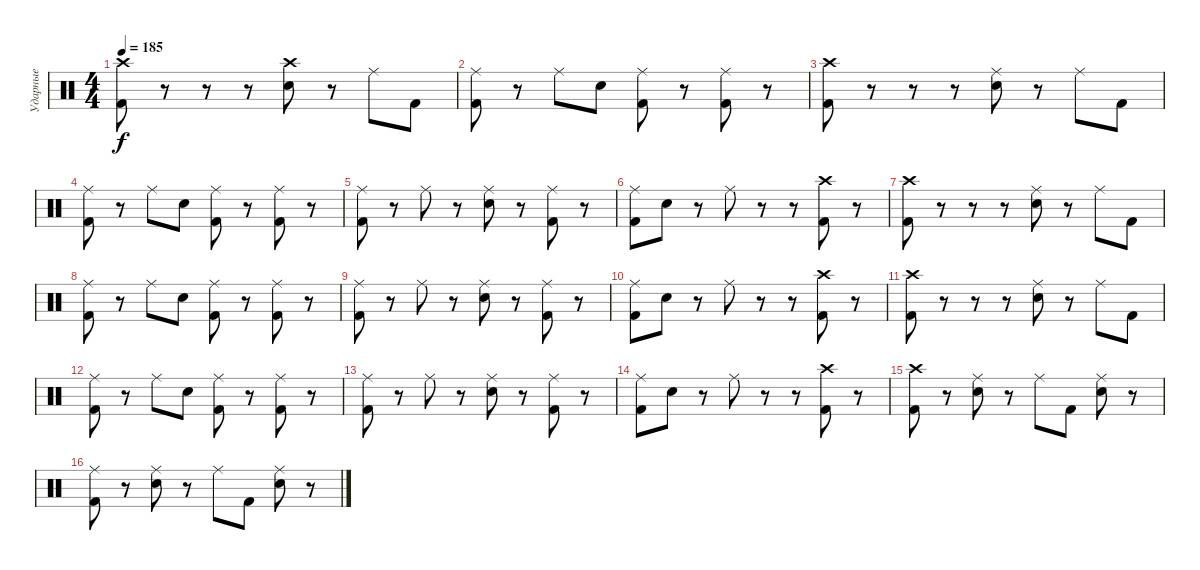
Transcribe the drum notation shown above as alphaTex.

\track ("Ударные" "Ударные") {instrument percussion}
\staff {score}
\articulation defaults
\ts (4 4)
\tempo 185
\clef neutral
\ks c
("Kick (hit) 2" "Crash high (hit)").8{dy f} r.8 r.8 r.8 ("Electric Snare (hit)" "Crash high (hit)").8 r.8 "Ride (middle)".8 "Kick (hit) 2".8 |
("Kick (hit) 2" "Ride (middle)").8 r.8 "Ride (middle)".8 "Electric Snare (hit)".8 ("Kick (hit) 2" "Ride (middle)").8 r.8 ("Kick (hit) 2" "Ride (middle)").8 r.8 |
("Kick (hit) 2" "Crash high (hit)").8 r.8 r.8 r.8 ("Electric Snare (hit)" "Ride (middle)").8 r.8 "Ride (middle)".8 "Kick (hit) 2".8 |
("Kick (hit) 2" "Ride (middle)").8 r.8 "Ride (middle)".8 "Electric Snare (hit)".8 ("Kick (hit) 2" "Ride (middle)").8 r.8 ("Kick (hit) 2" "Ride (middle)").8 r.8 |
("Kick (hit) 2" "Ride (middle)").8 r.8 "Ride (middle)".8 r.8 ("Electric Snare (hit)" "Ride (middle)").8 r.8 ("Kick (hit) 2" "Ride (middle)").8 r.8 |
("Kick (hit) 2" "Ride (middle)").8 "Electric Snare (hit)".8 r.8 "Ride (middle)".8 r.8 r.8 ("Kick (hit) 2" "Crash high (hit)").8 r.8 |
("Kick (hit) 2" "Crash high (hit)").8 r.8 r.8 r.8 ("Electric Snare (hit)" "Ride (middle)").8 r.8 "Ride (middle)".8 "Kick (hit) 2".8 |
("Kick (hit) 2" "Ride (middle)").8 r.8 "Ride (middle)".8 "Electric Snare (hit)".8 ("Kick (hit) 2" "Ride (middle)").8 r.8 ("Kick (hit) 2" "Ride (middle)").8 r.8 |
("Kick (hit) 2" "Ride (middle)").8 r.8 "Ride (middle)".8 r.8 ("Electric Snare (hit)" "Ride (middle)").8 r.8 ("Kick (hit) 2" "Ride (middle)").8 r.8 |
("Kick (hit) 2" "Ride (middle)").8 "Electric Snare (hit)".8 r.8 "Ride (middle)".8 r.8 r.8 ("Kick (hit) 2" "Crash high (hit)").8 r.8 |
("Kick (hit) 2" "Crash high (hit)").8 r.8 r.8 r.8 ("Electric Snare (hit)" "Ride (middle)").8 r.8 "Ride (middle)".8 "Kick (hit) 2".8 |
("Kick (hit) 2" "Ride (middle)").8 r.8 "Ride (middle)".8 "Electric Snare (hit)".8 ("Kick (hit) 2" "Ride (middle)").8 r.8 ("Kick (hit) 2" "Ride (middle)").8 r.8 |
("Kick (hit) 2" "Ride (middle)").8 r.8 "Ride (middle)".8 r.8 ("Electric Snare (hit)" "Ride (middle)").8 r.8 ("Kick (hit) 2" "Ride (middle)").8 r.8 |
("Kick (hit) 2" "Ride (middle)").8 "Electric Snare (hit)".8 r.8 "Ride (middle)".8 r.8 r.8 ("Kick (hit) 2" "Crash high (hit)").8 r.8 |
("Kick (hit) 2" "Crash high (hit)").8 r.8 ("Electric Snare (hit)" "Ride (middle)").8 r.8 "Ride (middle)".8 "Kick (hit) 2".8 ("Electric Snare (hit)" "Ride (middle)").8 r.8 |
("Kick (hit) 2" "Ride (middle)").8 r.8 ("Electric Snare (hit)" "Ride (middle)").8 r.8 "Ride (middle)".8 "Kick (hit) 2".8 ("Electric Snare (hit)" "Ride (middle)").8 r.8
